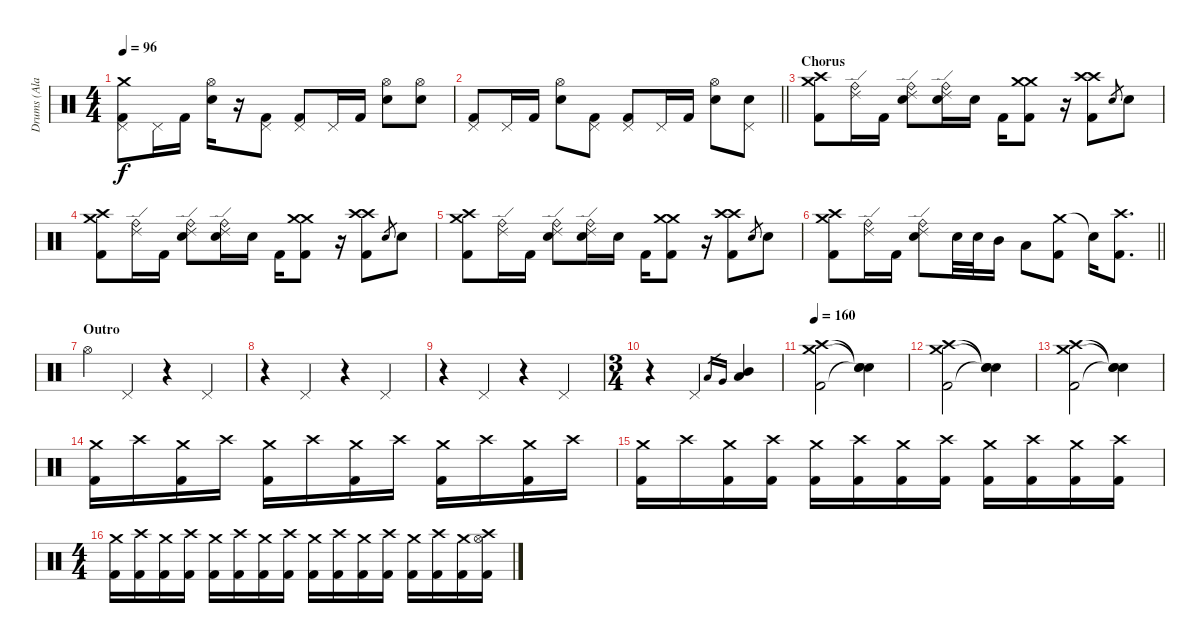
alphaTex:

\track ("Drums (Ala Pyle)" "Drums (Ala") {instrument percussion}
\staff {score}
\articulation defaults
\ts (4 4)
\tempo 96
\clef neutral
\ks c
("Crash medium (hit)" "Pedal Hi-Hat (hit)" "Kick (hit) 2").8{dy f} "Pedal Hi-Hat (hit)".16 "Kick (hit) 2".16 ("Electric Snare (hit)" "Hi-Hat (open)").16 r.16 ("Pedal Hi-Hat (hit)" "Kick (hit) 2").8 ("Pedal Hi-Hat (hit)" "Kick (hit) 2").8 "Pedal Hi-Hat (hit)".16 "Kick (hit) 2".16 ("Electric Snare (hit)" "Hi-Hat (open)").8 ("Electric Snare (hit)" "Hi-Hat (open)").8 |
\barLineRight lightlight
("Pedal Hi-Hat (hit)" "Kick (hit) 2").8 "Pedal Hi-Hat (hit)".16 "Kick (hit) 2".16 ("Electric Snare (hit)" "Hi-Hat (open)").8 ("Pedal Hi-Hat (hit)" "Kick (hit) 2").8 ("Pedal Hi-Hat (hit)" "Kick (hit) 2").8 "Pedal Hi-Hat (hit)".16 "Kick (hit) 2".16 ("Electric Snare (hit)" "Hi-Hat (open)").8 ("Electric Snare (hit)" "Pedal Hi-Hat (hit)").8 |
\section ("" "Chorus")
("Crash medium (hit)" "Crash high (hit)" "Kick (hit) 2").8 ("Ride (edge) 2" "Ride (bell)").16 "Kick (hit) 2".16 ("Ride (edge) 2" "Ride (bell)" "Electric Snare (hit)").8 ("Ride (edge) 2" "Ride (bell)" "Electric Snare (hit)").16 "Electric Snare (hit)".16 "Kick (hit) 2".16 ("Crash medium (hit)" "Crash medium (hit)" "Kick (hit) 2").8 r.16 ("Crash high (hit)" "Crash high (hit)" "Kick (hit) 2").8 "Electric Snare (hit)".8{gr} "Electric Snare (hit)".8 |
("Crash medium (hit)" "Crash high (hit)" "Kick (hit) 2").8 ("Ride (edge) 2" "Ride (bell)").16 "Kick (hit) 2".16 ("Ride (edge) 2" "Ride (bell)" "Electric Snare (hit)").8 ("Ride (edge) 2" "Ride (bell)" "Electric Snare (hit)").16 "Electric Snare (hit)".16 "Kick (hit) 2".16 ("Crash medium (hit)" "Crash medium (hit)" "Kick (hit) 2").8 r.16 ("Crash high (hit)" "Crash high (hit)" "Kick (hit) 2").8 "Electric Snare (hit)".8{gr} "Electric Snare (hit)".8 |
("Crash medium (hit)" "Crash high (hit)" "Kick (hit) 2").8 ("Ride (edge) 2" "Ride (bell)").16 "Kick (hit) 2".16 ("Ride (edge) 2" "Ride (bell)" "Electric Snare (hit)").8 ("Ride (edge) 2" "Ride (bell)" "Electric Snare (hit)").16 "Electric Snare (hit)".16 "Kick (hit) 2".16 ("Crash medium (hit)" "Crash medium (hit)" "Kick (hit) 2").8 r.16 ("Crash high (hit)" "Crash high (hit)" "Kick (hit) 2").8 "Electric Snare (hit)".8{gr} "Electric Snare (hit)".8 |
\barLineRight lightlight
("Crash medium (hit)" "Crash high (hit)" "Kick (hit) 2").8 ("Ride (edge) 2" "Ride (bell)").16 "Kick (hit) 2".16 ("Ride (edge) 2" "Ride (bell)" "Electric Snare (hit)").8 "Electric Snare (hit)".32 "Electric Snare (hit)".32 "Mid Tom (hit)".16 "Low Tom (hit)".8 ("Crash medium (hit)" "Kick (hit) 2").8 "Snare (hit)"{t}.16 ("Crash high (hit)" "Kick (hit) 2").8{d} |
\section ("" "Outro")
"Hi-Hat (open)".4 "Pedal Hi-Hat (hit)".4 r.4 "Pedal Hi-Hat (hit)".4 |
r.4 "Pedal Hi-Hat (hit)".4 r.4 "Pedal Hi-Hat (hit)".4 |
r.4 "Pedal Hi-Hat (hit)".4 r.4 "Pedal Hi-Hat (hit)".4 |
\ts (3 4)
r.4 "Pedal Hi-Hat (hit)".4 "Low Floor Tom (hit)".16{gr} "Very Low Tom (hit)".16{gr} ("Mid Tom (hit)" "Low Tom (hit)").4 |
\tempo 160
("Crash medium (hit)" "Crash high (hit)" "Kick (hit) 2").2 ("Snare (hit)"{t} "Snare (hit)"{t} "Snare (hit)"{t}).4 |
("Crash medium (hit)" "Crash high (hit)" "Kick (hit) 2").2 ("Snare (hit)"{t} "Snare (hit)"{t} "Snare (hit)"{t}).4 |
("Crash medium (hit)" "Crash high (hit)" "Kick (hit) 2").2 ("Snare (hit)"{t} "Snare (hit)"{t} "Snare (hit)"{t}).4 |
("Crash medium (hit)" "Kick (hit) 2").16 "Crash high (hit)".16 ("Crash medium (hit)" "Kick (hit) 2").16 "Crash high (hit)".16 ("Crash medium (hit)" "Kick (hit) 2").16 "Crash high (hit)".16 ("Crash medium (hit)" "Kick (hit) 2").16 "Crash high (hit)".16 ("Crash medium (hit)" "Kick (hit) 2").16 "Crash high (hit)".16 ("Crash medium (hit)" "Kick (hit) 2").16 "Crash high (hit)".16 |
("Crash medium (hit)" "Kick (hit) 2").16 "Crash high (hit)".16 ("Crash medium (hit)" "Kick (hit) 2").16 ("Crash high (hit)" "Kick (hit) 2").16 ("Crash medium (hit)" "Kick (hit) 2").16 ("Crash high (hit)" "Kick (hit) 2").16 ("Crash medium (hit)" "Kick (hit) 2").16 ("Crash high (hit)" "Kick (hit) 2").16 ("Crash medium (hit)" "Kick (hit) 2").16 ("Crash high (hit)" "Kick (hit) 2").16 ("Crash medium (hit)" "Kick (hit) 2").16 ("Crash high (hit)" "Kick (hit) 2").16 |
\ts (4 4)
("Crash medium (hit)" "Kick (hit) 2").16 ("Crash high (hit)" "Kick (hit) 2").16 ("Crash medium (hit)" "Kick (hit) 2").16 ("Crash high (hit)" "Kick (hit) 2").16 ("Crash medium (hit)" "Kick (hit) 2").16 ("Crash high (hit)" "Kick (hit) 2").16 ("Crash medium (hit)" "Kick (hit) 2").16 ("Crash high (hit)" "Kick (hit) 2").16 ("Crash medium (hit)" "Kick (hit) 2").16 ("Crash high (hit)" "Kick (hit) 2").16 ("Crash medium (hit)" "Kick (hit) 2").16 ("Crash high (hit)" "Kick (hit) 2").16 ("Crash medium (hit)" "Kick (hit) 2").16 ("Crash high (hit)" "Kick (hit) 2").16 ("Crash medium (hit)" "Kick (hit) 2").16 ("Crash high (hit)" "Hi-Hat (open)" "Kick (hit) 2").16
